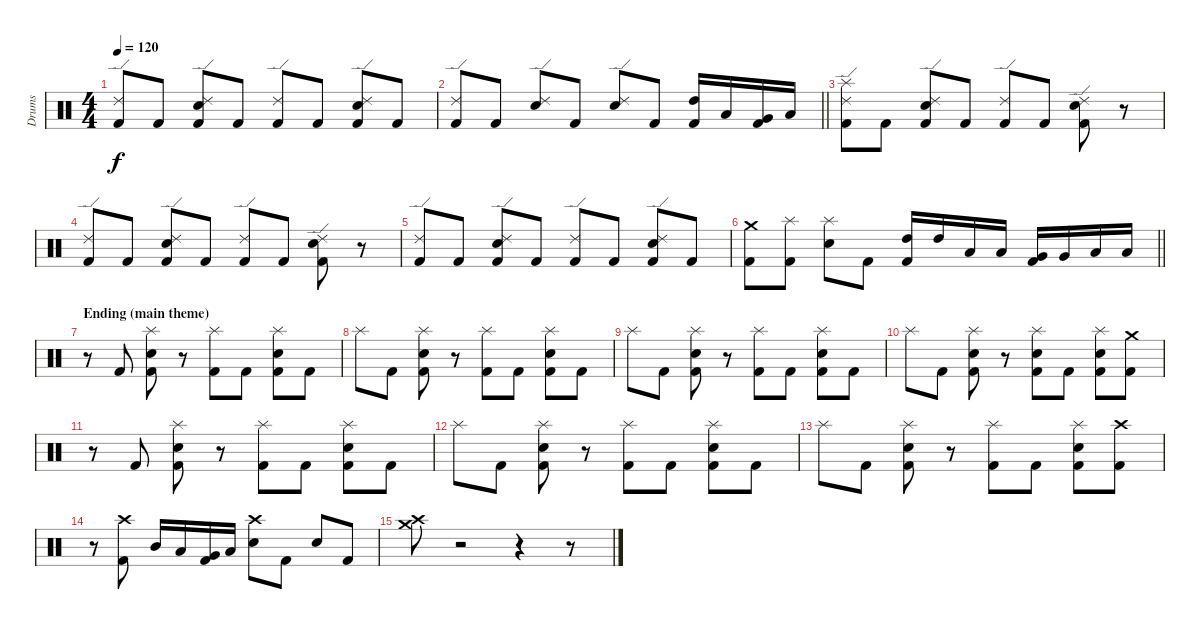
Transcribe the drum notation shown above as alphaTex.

\track ("Drums" "Drums") {instrument percussion}
\staff {score}
\articulation defaults
\ts (4 4)
\tempo 120
\clef neutral
\ks c
("Ride (edge) 2" "Kick (hit) 2").8{dy f} "Kick (hit) 2".8 ("Snare (hit) 2" "Kick (hit) 2" "Ride (edge) 2").8 "Kick (hit) 2".8 ("Ride (edge) 2" "Kick (hit) 2").8 "Kick (hit) 2".8 ("Snare (hit) 2" "Kick (hit) 2" "Ride (edge) 2").8 "Kick (hit) 2".8 |
\barLineRight lightlight
("Kick (hit) 2" "Ride (edge) 2").8 "Kick (hit) 2".8 ("Snare (hit) 2" "Ride (edge) 2").8 "Kick (hit) 2".8 ("Snare (hit) 2" "Ride (edge) 2").8 "Kick (hit) 2".8 ("High Tom (hit)" "Kick (hit) 2").16 "Low Tom (hit)".16 ("Very Low Tom (hit)" "Kick (hit) 2").16 "Low Floor Tom (hit)".16 |
("Kick (hit) 2" "Ride (edge) 2" "Splash (hit)").8 "Kick (hit) 2".8 ("Ride (edge) 2" "Snare (hit) 2" "Kick (hit) 2").8 "Kick (hit) 2".8 ("Ride (edge) 2" "Kick (hit) 2").8 "Kick (hit) 2".8 ("Ride (edge) 2" "Kick (hit) 2" "Snare (hit) 2").8 r.8 |
("Kick (hit) 2" "Ride (edge) 2").8 "Kick (hit) 2".8 ("Snare (hit) 2" "Kick (hit) 2" "Ride (edge) 2").8 "Kick (hit) 2".8 ("Ride (edge) 2" "Kick (hit) 2").8 "Kick (hit) 2".8 ("Snare (hit) 2" "Kick (hit) 2" "Ride (edge) 2").8 r.8 |
("Kick (hit) 2" "Ride (edge) 2").8 "Kick (hit) 2".8 ("Snare (hit) 2" "Kick (hit) 2" "Ride (edge) 2").8 "Kick (hit) 2".8 ("Ride (edge) 2" "Kick (hit) 2").8 "Kick (hit) 2".8 ("Snare (hit) 2" "Kick (hit) 2" "Ride (edge) 2").8 "Kick (hit) 2".8 |
\barLineRight lightlight
("Kick (hit) 2" "Crash medium (hit)").8 ("Kick (hit) 2" "Splash (hit)").8 ("Snare (hit) 2" "Splash (hit)").8 "Kick (hit) 2".8 ("High Tom (hit)" "Kick (hit) 2").16 "High Tom (hit)".16 "Low Tom (hit)".16 "Low Tom (hit)".16 ("Very Low Tom (hit)" "Kick (hit) 2").16 "Very Low Tom (hit)".16 "Low Floor Tom (hit)".16 "Low Floor Tom (hit)".16 |
\section ("" "Ending (main theme)")
r.8 "Kick (hit) 2".8 ("Kick (hit) 2" "Snare (hit) 2" "Splash (hit)").8 r.8 ("Splash (hit)" "Kick (hit) 2").8 "Kick (hit) 2".8 ("Splash (hit)" "Snare (hit) 2" "Kick (hit) 2").8 "Kick (hit) 2".8 |
"Splash (hit)".8 "Kick (hit) 2".8 ("Snare (hit) 2" "Kick (hit) 2" "Splash (hit)").8 r.8 ("Splash (hit)" "Kick (hit) 2").8 "Kick (hit) 2".8 ("Splash (hit)" "Kick (hit) 2" "Snare (hit) 2").8 "Kick (hit) 2".8 |
"Splash (hit)".8 "Kick (hit) 2".8 ("Splash (hit)" "Snare (hit) 2" "Kick (hit) 2").8 r.8 ("Splash (hit)" "Kick (hit) 2").8 "Kick (hit) 2".8 ("Splash (hit)" "Snare (hit) 2" "Kick (hit) 2").8 "Kick (hit) 2".8 |
"Splash (hit)".8 "Kick (hit) 2".8 ("Snare (hit) 2" "Kick (hit) 2" "Splash (hit)").8 r.8 ("Kick (hit) 2" "Splash (hit)" "Snare (hit) 2").8 "Kick (hit) 2".8 ("Snare (hit) 2" "Kick (hit) 2" "Splash (hit)").8 ("Crash medium (hit)" "Kick (hit) 2").8 |
r.8 "Kick (hit) 2".8 ("Kick (hit) 2" "Snare (hit) 2" "Splash (hit)").8 r.8 ("Splash (hit)" "Kick (hit) 2").8 "Kick (hit) 2".8 ("Splash (hit)" "Snare (hit) 2" "Kick (hit) 2").8 "Kick (hit) 2".8 |
"Splash (hit)".8 "Kick (hit) 2".8 ("Snare (hit) 2" "Kick (hit) 2" "Splash (hit)").8 r.8 ("Splash (hit)" "Kick (hit) 2").8 "Kick (hit) 2".8 ("Splash (hit)" "Kick (hit) 2" "Snare (hit) 2").8 "Kick (hit) 2".8 |
"Splash (hit)".8 "Kick (hit) 2".8 ("Splash (hit)" "Snare (hit) 2" "Kick (hit) 2").8 r.8 ("Splash (hit)" "Kick (hit) 2").8 "Kick (hit) 2".8 ("Splash (hit)" "Kick (hit) 2" "Snare (hit) 2").8 ("Crash high (hit)" "Kick (hit) 2").8 |
r.8 ("Crash high (hit)" "Kick (hit) 2").8 "Mid Tom (hit)".16 "Low Tom (hit)".16 ("Kick (hit) 2" "Very Low Tom (hit)").16 "Low Floor Tom (hit)".16 ("Crash high (hit)" "Snare (hit) 2").8 "Kick (hit) 2".8 "Snare (hit) 2".8 "Kick (hit) 2".8 |
("Crash high (hit)" "Crash medium (hit)").8 r.2 r.4 r.8
